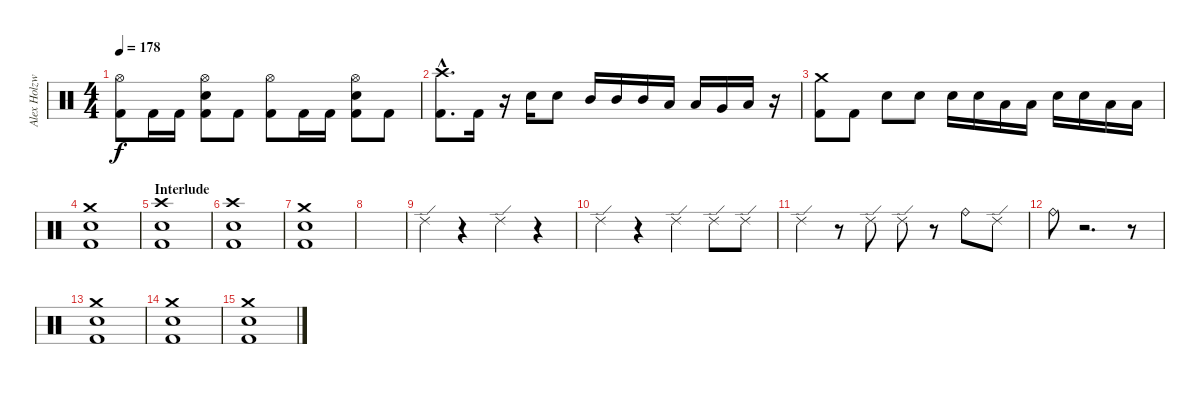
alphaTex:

\track ("Alex Holzwarth" "Alex Holzw") {instrument percussion}
\staff {score}
\articulation defaults
\ts (4 4)
\tempo 178
\clef neutral
\ks c
("Hi-Hat (open)" "Kick (hit) 2").8{dy f} "Kick (hit) 2".16 "Kick (hit) 2".16 ("Hi-Hat (open)" "Snare (hit) 2" "Kick (hit) 2").8 "Kick (hit) 2".8 ("Hi-Hat (open)" "Kick (hit) 2").8 "Kick (hit) 2".16 "Kick (hit) 2".16 ("Hi-Hat (open)" "Snare (hit) 2" "Kick (hit) 2").8 "Kick (hit) 2".8 |
("Crash high (hit)"{hac} "Kick (hit) 2"{hac}).8{d} "Kick (hit) 2".16 r.16 "Snare (hit) 2".16 "Snare (hit) 2".8 "Mid Tom (hit)".16 "Mid Tom (hit)".16 "Mid Tom (hit)".16 "Low Tom (hit)".16 "Low Tom (hit)".16 "Very Low Tom (hit)".16 "Low Floor Tom (hit)".16 r.16 |
("Crash medium (hit)" "Kick (hit) 2").8 "Kick (hit) 2".8 "Snare (hit) 2".8 "Snare (hit) 2".8 "Snare (hit) 2".16 "Snare (hit) 2".16 "Low Tom (hit)".16 "Low Tom (hit)".16 "Snare (hit) 2".16 "Snare (hit) 2".16 "Low Tom (hit)".16 "Low Tom (hit)".16 |
("Crash medium (hit)" "Snare (hit) 2" "Kick (hit) 2").1 |
\section ("" "Interlude")
("Crash high (hit)" "Snare (hit) 2" "Kick (hit) 2").1 |
("Crash high (hit)" "Snare (hit) 2" "Kick (hit) 2").1 |
("Crash medium (hit)" "Snare (hit) 2" "Kick (hit) 2").1 |
|
"Ride (edge) 2".4 r.4 "Ride (edge) 2".4 r.4 |
"Ride (edge) 2".4 r.4 "Ride (edge) 2".4 "Ride (edge) 2".8 "Ride (edge) 2".8 |
"Ride (edge) 2".4 r.8 "Ride (edge) 2".8 "Ride (edge) 2".8 r.8 "Ride (bell)".8 "Ride (edge) 2".8 |
"Ride (bell)".8 r.2{d} r.8 |
("Crash medium (hit)" "Snare (hit) 2" "Kick (hit) 2").1 |
("Crash medium (hit)" "Snare (hit) 2" "Kick (hit) 2").1 |
("Crash medium (hit)" "Snare (hit) 2" "Kick (hit) 2").1
